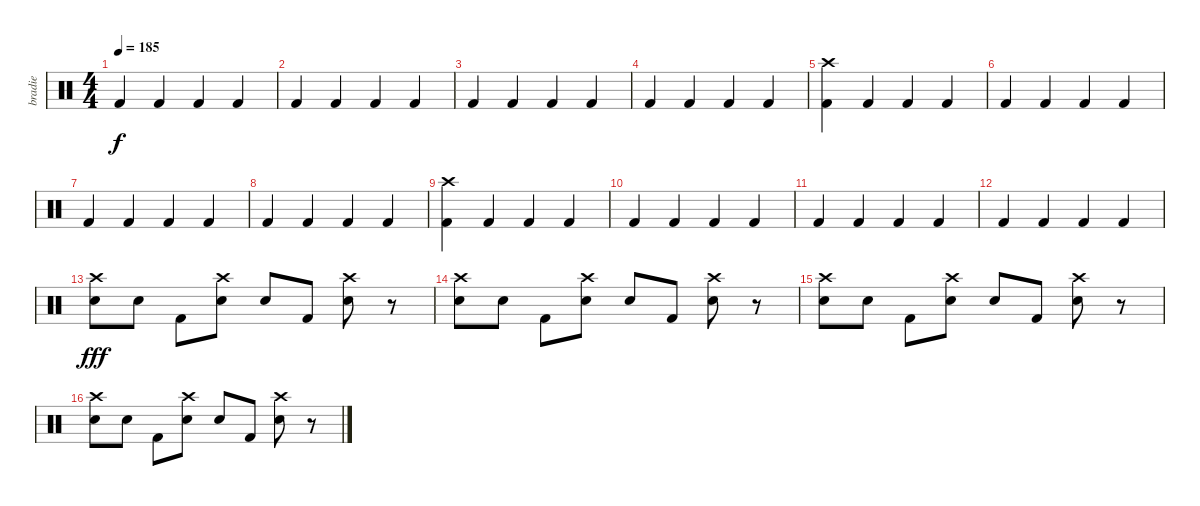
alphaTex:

\track ("bradie" "bradie") {instrument percussion}
\staff {score}
\articulation defaults
\ts (4 4)
\tempo 185
\clef neutral
\ks c "Kick (hit) 2".4{dy f} "Kick (hit) 2".4 "Kick (hit) 2".4 "Kick (hit) 2".4
|
"Kick (hit) 2".4 "Kick (hit) 2".4 "Kick (hit) 2".4 "Kick (hit) 2".4 |
"Kick (hit) 2".4 "Kick (hit) 2".4 "Kick (hit) 2".4 "Kick (hit) 2".4 |
"Kick (hit) 2".4 "Kick (hit) 2".4 "Kick (hit) 2".4 "Kick (hit) 2".4 |
("Crash high (hit)" "Kick (hit) 2").4 "Kick (hit) 2".4 "Kick (hit) 2".4 "Kick (hit) 2".4 |
"Kick (hit) 2".4 "Kick (hit) 2".4 "Kick (hit) 2".4 "Kick (hit) 2".4 |
"Kick (hit) 2".4 "Kick (hit) 2".4 "Kick (hit) 2".4 "Kick (hit) 2".4 |
"Kick (hit) 2".4 "Kick (hit) 2".4 "Kick (hit) 2".4 "Kick (hit) 2".4 |
("Crash high (hit)" "Kick (hit) 2").4 "Kick (hit) 2".4 "Kick (hit) 2".4 "Kick (hit) 2".4 |
"Kick (hit) 2".4 "Kick (hit) 2".4 "Kick (hit) 2".4 "Kick (hit) 2".4 |
"Kick (hit) 2".4 "Kick (hit) 2".4 "Kick (hit) 2".4 "Kick (hit) 2".4 |
"Kick (hit) 2".4 "Kick (hit) 2".4 "Kick (hit) 2".4 "Kick (hit) 2".4 |
("Crash high (hit)" "Electric Snare (hit)").8{dy fff} "Electric Snare (hit)".8 "Kick (hit) 2".8 ("Crash high (hit)" "Electric Snare (hit)").8 "Electric Snare (hit)".8 "Kick (hit) 2".8 ("Crash high (hit)" "Electric Snare (hit)").8 r.8 |
("Crash high (hit)" "Electric Snare (hit)").8 "Electric Snare (hit)".8 "Kick (hit) 2".8 ("Crash high (hit)" "Electric Snare (hit)").8 "Electric Snare (hit)".8 "Kick (hit) 2".8 ("Crash high (hit)" "Electric Snare (hit)").8 r.8 |
("Crash high (hit)" "Electric Snare (hit)").8 "Electric Snare (hit)".8 "Kick (hit) 2".8 ("Crash high (hit)" "Electric Snare (hit)").8 "Electric Snare (hit)".8 "Kick (hit) 2".8 ("Crash high (hit)" "Electric Snare (hit)").8 r.8 |
("Crash high (hit)" "Electric Snare (hit)").8 "Electric Snare (hit)".8 "Kick (hit) 2".8 ("Crash high (hit)" "Electric Snare (hit)").8 "Electric Snare (hit)".8 "Kick (hit) 2".8 ("Crash high (hit)" "Electric Snare (hit)").8 r.8
